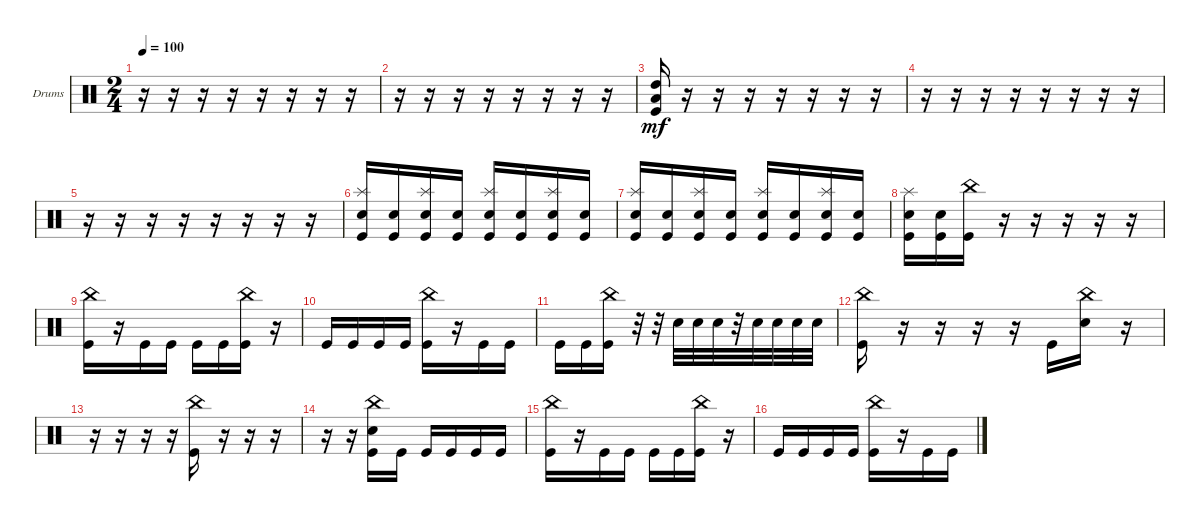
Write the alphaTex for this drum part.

\bracketExtendMode groupsimilarinstruments
\firstSystemTrackNameOrientation horizontal
\otherSystemsTrackNameOrientation horizontal
\track ("Drumkit" "Drums") {instrument percussion}
\staff {score}
\articulation defaults
\ts (2 4)
\tempo 100
\clef neutral
\ks c
r.16{dy mf} r.16 r.16 r.16 r.16 r.16 r.16 r.16 |
r.16 r.16 r.16 r.16 r.16 r.16 r.16 r.16 |
("Kick (hit)" "Low Tom (hit)" "High Tom (hit)").16 r.16 r.16 r.16 r.16 r.16 r.16 r.16 |
r.16 r.16 r.16 r.16 r.16 r.16 r.16 r.16 |
r.16 r.16 r.16 r.16 r.16 r.16 r.16 r.16 |
("Kick (hit)" "Splash (hit)" "Snare (hit) 2").16 ("Kick (hit)" "Snare (hit) 2").16 ("Kick (hit)" "Splash (hit)" "Snare (hit) 2").16 ("Kick (hit)" "Snare (hit) 2").16 ("Kick (hit)" "Splash (hit)" "Snare (hit) 2").16 ("Kick (hit)" "Snare (hit) 2").16 ("Kick (hit)" "Splash (hit)" "Snare (hit) 2").16 ("Kick (hit)" "Snare (hit) 2").16 |
("Kick (hit)" "Splash (hit)" "Snare (hit) 2").16 ("Kick (hit)" "Snare (hit) 2").16 ("Kick (hit)" "Splash (hit)" "Snare (hit) 2").16 ("Kick (hit)" "Snare (hit) 2").16 ("Kick (hit)" "Splash (hit)" "Snare (hit) 2").16 ("Kick (hit)" "Snare (hit) 2").16 ("Kick (hit)" "Splash (hit)" "Snare (hit) 2").16 ("Kick (hit)" "Snare (hit) 2").16 |
("Kick (hit)" "Splash (hit)" "Snare (hit) 2").16 ("Kick (hit)" "Snare (hit) 2").16 ("Kick (hit)" "China (hit)").16 r.16 r.16 r.16 r.16 r.16 |
("China (hit)" "Kick (hit)").16 r.16 "Kick (hit)".16 "Kick (hit)".16 "Kick (hit)".16 "Kick (hit)".16 ("China (hit)" "Kick (hit)").16 r.16 |
"Kick (hit)".16 "Kick (hit)".16 "Kick (hit)".16 "Kick (hit)".16 ("China (hit)" "Kick (hit)").16 r.16 "Kick (hit)".16 "Kick (hit)".16 |
"Kick (hit)".16 "Kick (hit)".16 ("China (hit)" "Kick (hit)").16 r.32 r.32 "Snare (hit) 2".32 "Snare (hit) 2".32 "Snare (hit) 2".32 r.32 "Snare (hit) 2".32 "Snare (hit) 2".32 "Snare (hit) 2".32 "Snare (hit) 2".32 |
("China (hit)" "Kick (hit)").16 r.16 r.16 r.16 r.16 "Kick (hit)".16 ("China (hit)" "Snare (hit) 2").16 r.16 |
r.16 r.16 r.16 r.16 ("China (hit)" "Kick (hit)").16 r.16 r.16 r.16 |
r.16 r.16 ("China (hit)" "Kick (hit)" "Snare (hit) 2").16 "Kick (hit)".16 "Kick (hit)".16 "Kick (hit)".16 "Kick (hit)".16 "Kick (hit)".16 |
("China (hit)" "Kick (hit)").16 r.16 "Kick (hit)".16 "Kick (hit)".16 "Kick (hit)".16 "Kick (hit)".16 ("China (hit)" "Kick (hit)").16 r.16 |
"Kick (hit)".16 "Kick (hit)".16 "Kick (hit)".16 "Kick (hit)".16 ("China (hit)" "Kick (hit)").16 r.16 "Kick (hit)".16 "Kick (hit)".16
